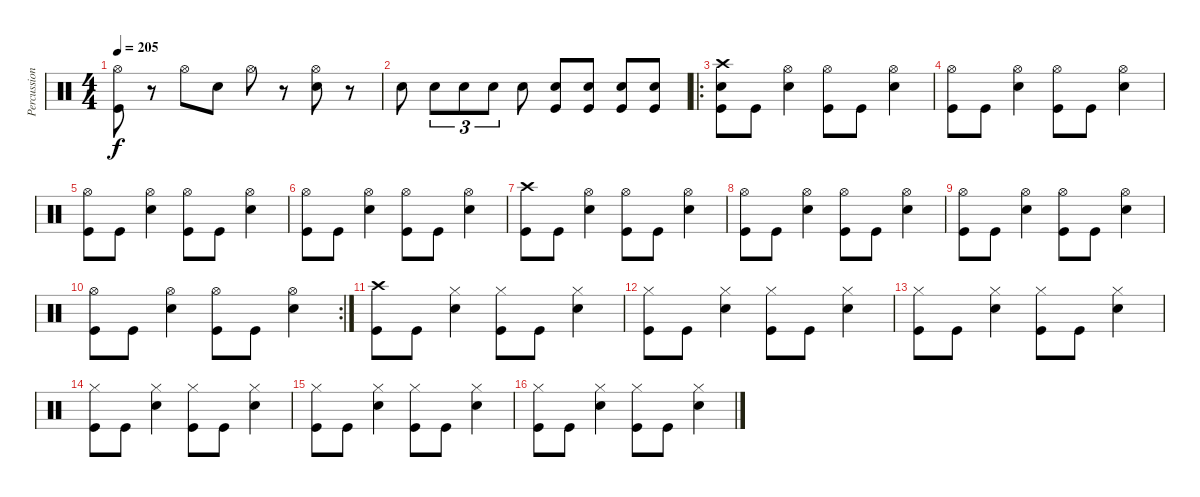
\track ("Percussion" "Percussion") {instrument percussion}
\staff {score}
\articulation defaults
\ts (4 4)
\tempo 205
\clef neutral
\ks c
("Hi-Hat (open)" "Kick (hit)").8{dy f} r.8 "Hi-Hat (open)".8 "Snare (hit) 2".8 "Hi-Hat (open)".8 r.8 ("Hi-Hat (open)" "Snare (hit) 2").8 r.8 |
"Snare (hit) 2".8 "Snare (hit) 2".8{tu (3 2)} "Snare (hit) 2".8{tu (3 2)} "Snare (hit) 2".8{tu (3 2)} "Snare (hit) 2".8 ("Snare (hit) 2" "Kick (hit)").8 ("Snare (hit) 2" "Kick (hit)").8 ("Snare (hit) 2" "Kick (hit)").8 ("Snare (hit) 2" "Kick (hit)").8 |
\ro
("Snare (hit) 2" "Kick (hit)" "Crash high (hit)").8 "Kick (hit)".8 ("Snare (hit) 2" "Hi-Hat (open)").4 ("Kick (hit)" "Hi-Hat (open)").8 "Kick (hit)".8 ("Snare (hit) 2" "Hi-Hat (open)").4 |
("Kick (hit)" "Hi-Hat (open)").8 "Kick (hit)".8 ("Snare (hit) 2" "Hi-Hat (open)").4 ("Kick (hit)" "Hi-Hat (open)").8 "Kick (hit)".8 ("Snare (hit) 2" "Hi-Hat (open)").4 |
("Kick (hit)" "Hi-Hat (open)").8 "Kick (hit)".8 ("Snare (hit) 2" "Hi-Hat (open)").4 ("Kick (hit)" "Hi-Hat (open)").8 "Kick (hit)".8 ("Snare (hit) 2" "Hi-Hat (open)").4 |
("Kick (hit)" "Hi-Hat (open)").8 "Kick (hit)".8 ("Snare (hit) 2" "Hi-Hat (open)").4 ("Kick (hit)" "Hi-Hat (open)").8 "Kick (hit)".8 ("Snare (hit) 2" "Hi-Hat (open)").4 |
("Kick (hit)" "Crash high (hit)").8 "Kick (hit)".8 ("Snare (hit) 2" "Hi-Hat (open)").4 ("Kick (hit)" "Hi-Hat (open)").8 "Kick (hit)".8 ("Snare (hit) 2" "Hi-Hat (open)").4 |
("Kick (hit)" "Hi-Hat (open)").8 "Kick (hit)".8 ("Snare (hit) 2" "Hi-Hat (open)").4 ("Kick (hit)" "Hi-Hat (open)").8 "Kick (hit)".8 ("Snare (hit) 2" "Hi-Hat (open)").4 |
("Kick (hit)" "Hi-Hat (open)").8 "Kick (hit)".8 ("Snare (hit) 2" "Hi-Hat (open)").4 ("Kick (hit)" "Hi-Hat (open)").8 "Kick (hit)".8 ("Snare (hit) 2" "Hi-Hat (open)").4 |
\rc 2
("Kick (hit)" "Hi-Hat (open)").8 "Kick (hit)".8 ("Snare (hit) 2" "Hi-Hat (open)").4 ("Kick (hit)" "Hi-Hat (open)").8 "Kick (hit)".8 ("Snare (hit) 2" "Hi-Hat (open)").4 |
("Kick (hit)" "Crash high (hit)").8 "Kick (hit)".8 ("Snare (hit) 2" "Hi-Hat (closed)").4 ("Kick (hit)" "Hi-Hat (closed)").8 "Kick (hit)".8 ("Snare (hit) 2" "Hi-Hat (closed)").4 |
("Kick (hit)" "Hi-Hat (closed)").8 "Kick (hit)".8 ("Snare (hit) 2" "Hi-Hat (closed)").4 ("Kick (hit)" "Hi-Hat (closed)").8 "Kick (hit)".8 ("Snare (hit) 2" "Hi-Hat (closed)").4 |
("Kick (hit)" "Hi-Hat (closed)").8 "Kick (hit)".8 ("Snare (hit) 2" "Hi-Hat (closed)").4 ("Kick (hit)" "Hi-Hat (closed)").8 "Kick (hit)".8 ("Snare (hit) 2" "Hi-Hat (closed)").4 |
("Kick (hit)" "Hi-Hat (closed)").8 "Kick (hit)".8 ("Snare (hit) 2" "Hi-Hat (closed)").4 ("Kick (hit)" "Hi-Hat (closed)").8 "Kick (hit)".8 ("Snare (hit) 2" "Hi-Hat (closed)").4 |
("Kick (hit)" "Hi-Hat (closed)").8 "Kick (hit)".8 ("Snare (hit) 2" "Hi-Hat (closed)").4 ("Kick (hit)" "Hi-Hat (closed)").8 "Kick (hit)".8 ("Snare (hit) 2" "Hi-Hat (closed)").4 |
("Kick (hit)" "Hi-Hat (closed)").8 "Kick (hit)".8 ("Snare (hit) 2" "Hi-Hat (closed)").4 ("Kick (hit)" "Hi-Hat (closed)").8 "Kick (hit)".8 ("Snare (hit) 2" "Hi-Hat (closed)").4
